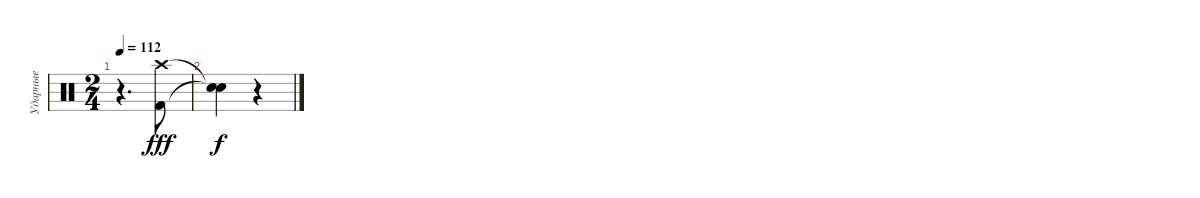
\track ("Ударные" "Ударные") {instrument percussion}
\staff {score}
\articulation defaults
\ts (2 4)
\tempo 112
\clef neutral
\ks c
r.4{d dy fff} ("Crash high (hit)" "Kick (hit) 2").8 |
("Snare (hit)"{t} "Snare (hit)"{t}).4{dy f} r.4
